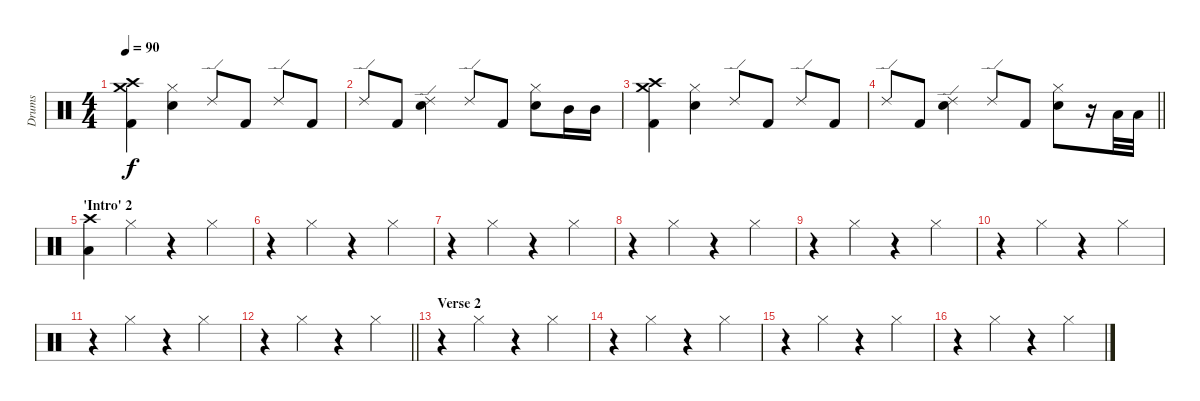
\track ("Drums" "Drums") {instrument percussion}
\staff {score}
\articulation defaults
\ts (4 4)
\tempo 90
\clef neutral
\ks c
("Crash high (hit)" "Crash medium (hit)" "Kick (hit) 2").4{dy f} ("Hi-Hat (closed)" "Snare (hit) 2").4 "Ride (edge) 2".8 "Kick (hit) 2".8 "Ride (edge) 2".8 "Kick (hit) 2".8 |
"Ride (edge) 2".8 "Kick (hit) 2".8 ("Ride (edge) 2" "Snare (hit) 2").4 "Ride (edge) 2".8 "Kick (hit) 2".8 ("Hi-Hat (closed)" "Snare (hit) 2").8 "Mid Tom (hit)".16 "Mid Tom (hit)".16 |
("Crash high (hit)" "Crash medium (hit)" "Kick (hit) 2").4 ("Hi-Hat (closed)" "Snare (hit) 2").4 "Ride (edge) 2".8 "Kick (hit) 2".8 "Ride (edge) 2".8 "Kick (hit) 2".8 |
\barLineRight lightlight "Ride (edge) 2".8 "Kick (hit) 2".8
("Ride (edge) 2" "Snare (hit) 2").4 "Ride (edge) 2".8 "Kick (hit) 2".8 ("Hi-Hat (closed)" "Snare (hit) 2").8 r.16 "Low Tom (hit)".32 "Low Tom (hit)".32 |
\section ("" "'Intro' 2")
("Crash high (hit)" "Low Tom (hit)").4 "Hi-Hat (closed)".4 r.4 "Hi-Hat (closed)".4 |
r.4 "Hi-Hat (closed)".4 r.4 "Hi-Hat (closed)".4 |
r.4 "Hi-Hat (closed)".4 r.4 "Hi-Hat (closed)".4 |
r.4 "Hi-Hat (closed)".4 r.4 "Hi-Hat (closed)".4 |
r.4 "Hi-Hat (closed)".4 r.4 "Hi-Hat (closed)".4 |
r.4 "Hi-Hat (closed)".4 r.4 "Hi-Hat (closed)".4 |
r.4 "Hi-Hat (closed)".4 r.4 "Hi-Hat (closed)".4 |
\barLineRight lightlight
r.4 "Hi-Hat (closed)".4 r.4 "Hi-Hat (closed)".4 |
\section ("" "Verse 2")
r.4 "Hi-Hat (closed)".4 r.4 "Hi-Hat (closed)".4 |
r.4 "Hi-Hat (closed)".4 r.4 "Hi-Hat (closed)".4 |
r.4 "Hi-Hat (closed)".4 r.4 "Hi-Hat (closed)".4 |
r.4 "Hi-Hat (closed)".4 r.4 "Hi-Hat (closed)".4
